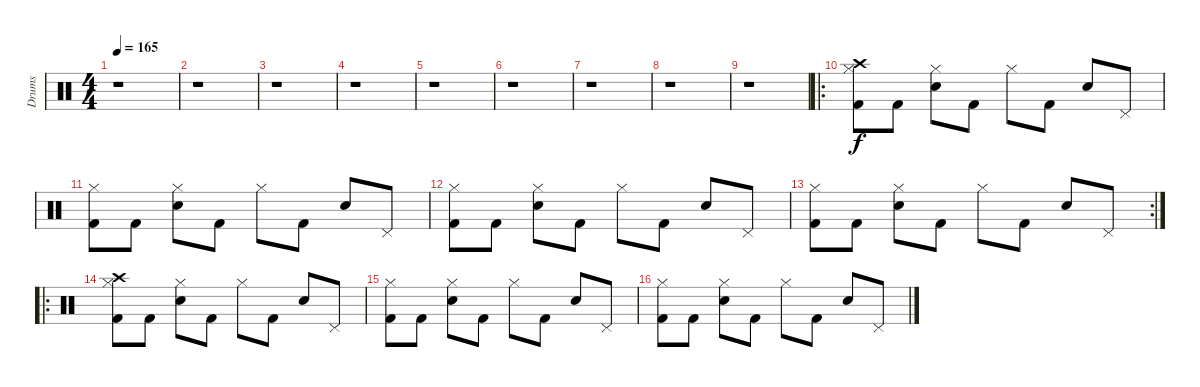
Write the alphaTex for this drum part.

\track ("Drums" "Drums") {instrument percussion}
\staff {score}
\articulation defaults
\ts (4 4)
\tempo 165
\clef neutral
\ks c
r.1{dy f} |
r.1 |
r.1 |
r.1 |
r.1 |
r.1 |
r.1 |
r.1 |
r.1 |
\ro
("Crash high (hit)" "Kick (hit) 2" "Hi-Hat (closed)").8 "Kick (hit) 2".8 ("Snare (hit) 2" "Hi-Hat (closed)").8 "Kick (hit) 2".8 "Hi-Hat (closed)".8 "Kick (hit) 2".8 "Snare (hit) 2".8 "Pedal Hi-Hat (hit)".8 |
("Kick (hit) 2" "Hi-Hat (closed)").8 "Kick (hit) 2".8 ("Snare (hit) 2" "Hi-Hat (closed)").8 "Kick (hit) 2".8 "Hi-Hat (closed)".8 "Kick (hit) 2".8 "Snare (hit) 2".8 "Pedal Hi-Hat (hit)".8 |
("Kick (hit) 2" "Hi-Hat (closed)").8 "Kick (hit) 2".8 ("Snare (hit) 2" "Hi-Hat (closed)").8 "Kick (hit) 2".8 "Hi-Hat (closed)".8 "Kick (hit) 2".8 "Snare (hit) 2".8 "Pedal Hi-Hat (hit)".8 |
\rc 2
("Kick (hit) 2" "Hi-Hat (closed)").8 "Kick (hit) 2".8 ("Snare (hit) 2" "Hi-Hat (closed)").8 "Kick (hit) 2".8 "Hi-Hat (closed)".8 "Kick (hit) 2".8 "Snare (hit) 2".8 "Pedal Hi-Hat (hit)".8 |
\ro
("Crash high (hit)" "Kick (hit) 2" "Hi-Hat (closed)").8 "Kick (hit) 2".8 ("Snare (hit) 2" "Hi-Hat (closed)").8 "Kick (hit) 2".8 "Hi-Hat (closed)".8 "Kick (hit) 2".8 "Snare (hit) 2".8 "Pedal Hi-Hat (hit)".8 |
("Kick (hit) 2" "Hi-Hat (closed)").8 "Kick (hit) 2".8 ("Snare (hit) 2" "Hi-Hat (closed)").8 "Kick (hit) 2".8 "Hi-Hat (closed)".8 "Kick (hit) 2".8 "Snare (hit) 2".8 "Pedal Hi-Hat (hit)".8 |
("Kick (hit) 2" "Hi-Hat (closed)").8 "Kick (hit) 2".8 ("Snare (hit) 2" "Hi-Hat (closed)").8 "Kick (hit) 2".8 "Hi-Hat (closed)".8 "Kick (hit) 2".8 "Snare (hit) 2".8 "Pedal Hi-Hat (hit)".8
